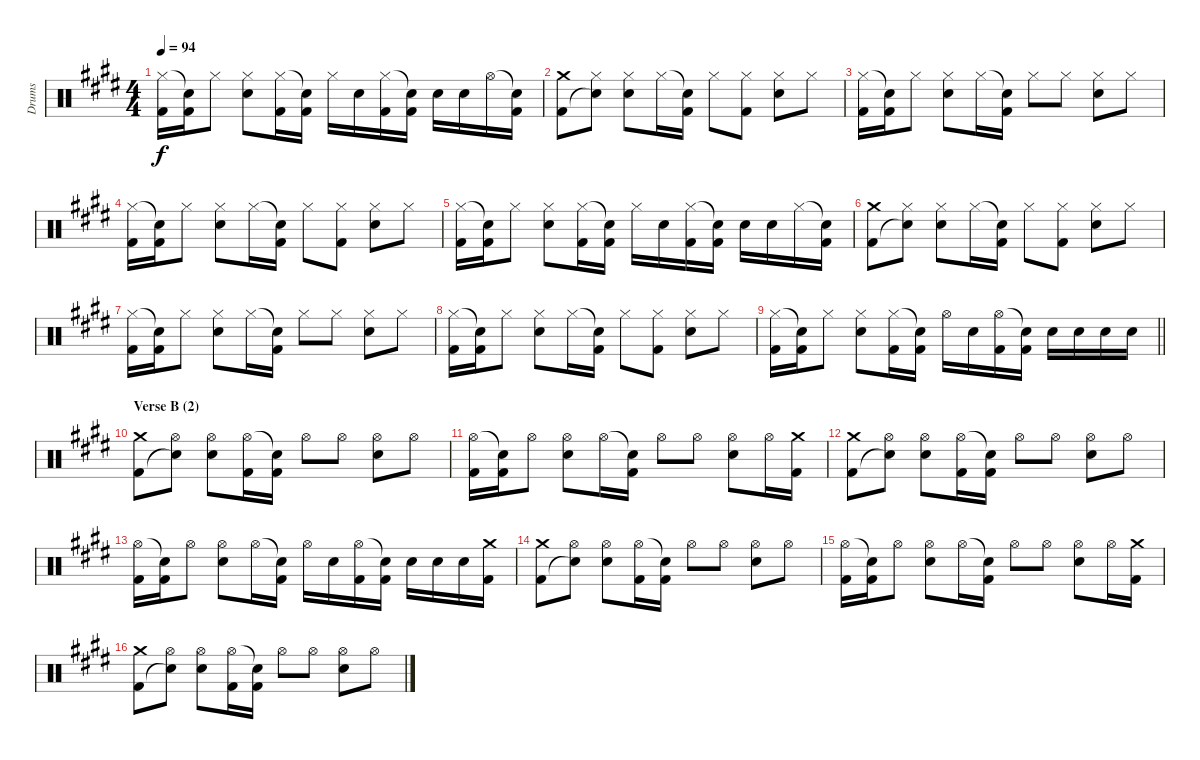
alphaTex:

\track ("Drums" "Drums") {instrument percussion}
\staff {score}
\articulation defaults
\ts (4 4)
\tempo 94
\clef neutral
\ks c#minor
("Hi-Hat (closed)" "Kick (hit) 2").16{dy f} ("Snare (hit)"{t} "Kick (hit) 2").16 "Hi-Hat (closed)".8 ("Hi-Hat (closed)" "Electric Snare (hit)").8 ("Hi-Hat (closed)" "Kick (hit) 2").16 ("Snare (hit)"{t} "Kick (hit) 2").16 "Hi-Hat (closed)".16 "Electric Snare (hit)".16 ("Hi-Hat (closed)" "Kick (hit) 2").16 ("Snare (hit)"{t} "Kick (hit) 2").16 "Electric Snare (hit)".16 "Electric Snare (hit)".16 "Hi-Hat (open)".16 ("Snare (hit)"{t} "Kick (hit) 2").16 |
("Crash medium (hit)" "Kick (hit) 2").8 ("Hi-Hat (closed)" "Snare (hit)"{t}).8 ("Hi-Hat (closed)" "Electric Snare (hit)").8 "Hi-Hat (closed)".16 ("Snare (hit)"{t} "Kick (hit) 2").16 "Hi-Hat (closed)".8 ("Hi-Hat (closed)" "Kick (hit) 2").8 ("Hi-Hat (closed)" "Electric Snare (hit)").8 "Hi-Hat (closed)".8 |
("Hi-Hat (closed)" "Kick (hit) 2").16 ("Snare (hit)"{t} "Kick (hit) 2").16 "Hi-Hat (closed)".8 ("Hi-Hat (closed)" "Electric Snare (hit)").8 "Hi-Hat (closed)".16 ("Snare (hit)"{t} "Kick (hit) 2").16 "Hi-Hat (closed)".8 "Hi-Hat (closed)".8 ("Hi-Hat (closed)" "Electric Snare (hit)").8 "Hi-Hat (closed)".8 |
("Hi-Hat (closed)" "Kick (hit) 2").16 ("Snare (hit)"{t} "Kick (hit) 2").16 "Hi-Hat (closed)".8 ("Hi-Hat (closed)" "Electric Snare (hit)").8 "Hi-Hat (closed)".16 ("Snare (hit)"{t} "Kick (hit) 2").16 "Hi-Hat (closed)".8 ("Hi-Hat (closed)" "Kick (hit) 2").8 ("Hi-Hat (closed)" "Electric Snare (hit)").8 "Hi-Hat (closed)".8 |
("Hi-Hat (closed)" "Kick (hit) 2").16 ("Snare (hit)"{t} "Kick (hit) 2").16 "Hi-Hat (closed)".8 ("Hi-Hat (closed)" "Electric Snare (hit)").8 ("Hi-Hat (closed)" "Kick (hit) 2").16 ("Snare (hit)"{t} "Kick (hit) 2").16 "Hi-Hat (closed)".16 "Electric Snare (hit)".16 ("Hi-Hat (closed)" "Kick (hit) 2").16 ("Snare (hit)"{t} "Kick (hit) 2").16 "Electric Snare (hit)".16 "Electric Snare (hit)".16 "Hi-Hat (closed)".16 ("Snare (hit)"{t} "Kick (hit) 2").16 |
("Crash medium (hit)" "Kick (hit) 2").8 ("Hi-Hat (closed)" "Snare (hit)"{t}).8 ("Hi-Hat (closed)" "Electric Snare (hit)").8 "Hi-Hat (closed)".16 ("Snare (hit)"{t} "Kick (hit) 2").16 "Hi-Hat (closed)".8 ("Hi-Hat (closed)" "Kick (hit) 2").8 ("Hi-Hat (closed)" "Electric Snare (hit)").8 "Hi-Hat (closed)".8 |
("Hi-Hat (closed)" "Kick (hit) 2").16 ("Snare (hit)"{t} "Kick (hit) 2").16 "Hi-Hat (closed)".8 ("Hi-Hat (closed)" "Electric Snare (hit)").8 "Hi-Hat (closed)".16 ("Snare (hit)"{t} "Kick (hit) 2").16 "Hi-Hat (closed)".8 "Hi-Hat (closed)".8 ("Hi-Hat (closed)" "Electric Snare (hit)").8 "Hi-Hat (closed)".8 |
("Hi-Hat (closed)" "Kick (hit) 2").16 ("Snare (hit)"{t} "Kick (hit) 2").16 "Hi-Hat (closed)".8 ("Hi-Hat (closed)" "Electric Snare (hit)").8 "Hi-Hat (closed)".16 ("Snare (hit)"{t} "Kick (hit) 2").16 "Hi-Hat (closed)".8 ("Hi-Hat (closed)" "Kick (hit) 2").8 ("Hi-Hat (closed)" "Electric Snare (hit)").8 "Hi-Hat (closed)".8 |
\barLineRight lightlight
("Hi-Hat (closed)" "Kick (hit) 2").16 ("Snare (hit)"{t} "Kick (hit) 2").16 "Hi-Hat (closed)".8 ("Hi-Hat (closed)" "Electric Snare (hit)").8 ("Hi-Hat (closed)" "Kick (hit) 2").16 ("Snare (hit)"{t} "Kick (hit) 2").16 "Hi-Hat (open)".16 "Electric Snare (hit)".16 ("Hi-Hat (open)" "Kick (hit) 2").16 ("Snare (hit)"{t} "Kick (hit) 2").16 "Electric Snare (hit)".16 "Electric Snare (hit)".16 "Electric Snare (hit)".16 "Electric Snare (hit)".16 |
\section ("" "Verse B (2)")
("Crash medium (hit)" "Kick (hit) 2").8 ("Hi-Hat (open)" "Snare (hit)"{t}).8 ("Hi-Hat (open)" "Electric Snare (hit)").8 ("Hi-Hat (open)" "Kick (hit) 2").16 ("Snare (hit)"{t} "Kick (hit) 2").16 "Hi-Hat (open)".8 "Hi-Hat (open)".8 ("Hi-Hat (open)" "Electric Snare (hit)").8 "Hi-Hat (open)".8 |
("Hi-Hat (open)" "Kick (hit) 2").16 ("Snare (hit)"{t} "Kick (hit) 2").16 "Hi-Hat (open)".8 ("Hi-Hat (open)" "Electric Snare (hit)").8 "Hi-Hat (open)".16 ("Snare (hit)"{t} "Kick (hit) 2").16 "Hi-Hat (open)".8 "Hi-Hat (open)".8 ("Hi-Hat (open)" "Electric Snare (hit)").8 "Hi-Hat (open)".16 ("Crash medium (hit)" "Kick (hit) 2").16 |
("Crash medium (hit)" "Kick (hit) 2").8 ("Hi-Hat (open)" "Snare (hit)"{t}).8 ("Hi-Hat (open)" "Electric Snare (hit)").8 ("Hi-Hat (open)" "Kick (hit) 2").16 ("Snare (hit)"{t} "Kick (hit) 2").16 "Hi-Hat (open)".8 "Hi-Hat (open)".8 ("Hi-Hat (open)" "Electric Snare (hit)").8 "Hi-Hat (open)".8 |
("Hi-Hat (open)" "Kick (hit) 2").16 ("Snare (hit)"{t} "Kick (hit) 2").16 "Hi-Hat (open)".8 ("Hi-Hat (open)" "Electric Snare (hit)").8 "Hi-Hat (open)".16 ("Snare (hit)"{t} "Kick (hit) 2").16 "Hi-Hat (open)".16 "Electric Snare (hit)".16 ("Hi-Hat (open)" "Kick (hit) 2").16 ("Snare (hit)"{t} "Kick (hit) 2").16 "Electric Snare (hit)".16 "Electric Snare (hit)".16 "Electric Snare (hit)".16 ("Crash medium (hit)" "Kick (hit) 2").16 |
("Crash medium (hit)" "Kick (hit) 2").8 ("Hi-Hat (open)" "Snare (hit)"{t}).8 ("Hi-Hat (open)" "Electric Snare (hit)").8 ("Hi-Hat (open)" "Kick (hit) 2").16 ("Snare (hit)"{t} "Kick (hit) 2").16 "Hi-Hat (open)".8 "Hi-Hat (open)".8 ("Hi-Hat (open)" "Electric Snare (hit)").8 "Hi-Hat (open)".8 |
("Hi-Hat (open)" "Kick (hit) 2").16 ("Snare (hit)"{t} "Kick (hit) 2").16 "Hi-Hat (open)".8 ("Hi-Hat (open)" "Electric Snare (hit)").8 "Hi-Hat (open)".16 ("Snare (hit)"{t} "Kick (hit) 2").16 "Hi-Hat (open)".8 "Hi-Hat (open)".8 ("Hi-Hat (open)" "Electric Snare (hit)").8 "Hi-Hat (open)".16 ("Crash medium (hit)" "Kick (hit) 2").16 |
("Crash medium (hit)" "Kick (hit) 2").8 ("Hi-Hat (open)" "Snare (hit)"{t}).8 ("Hi-Hat (open)" "Electric Snare (hit)").8 ("Hi-Hat (open)" "Kick (hit) 2").16 ("Snare (hit)"{t} "Kick (hit) 2").16 "Hi-Hat (open)".8 "Hi-Hat (open)".8 ("Hi-Hat (open)" "Electric Snare (hit)").8 "Hi-Hat (open)".8
